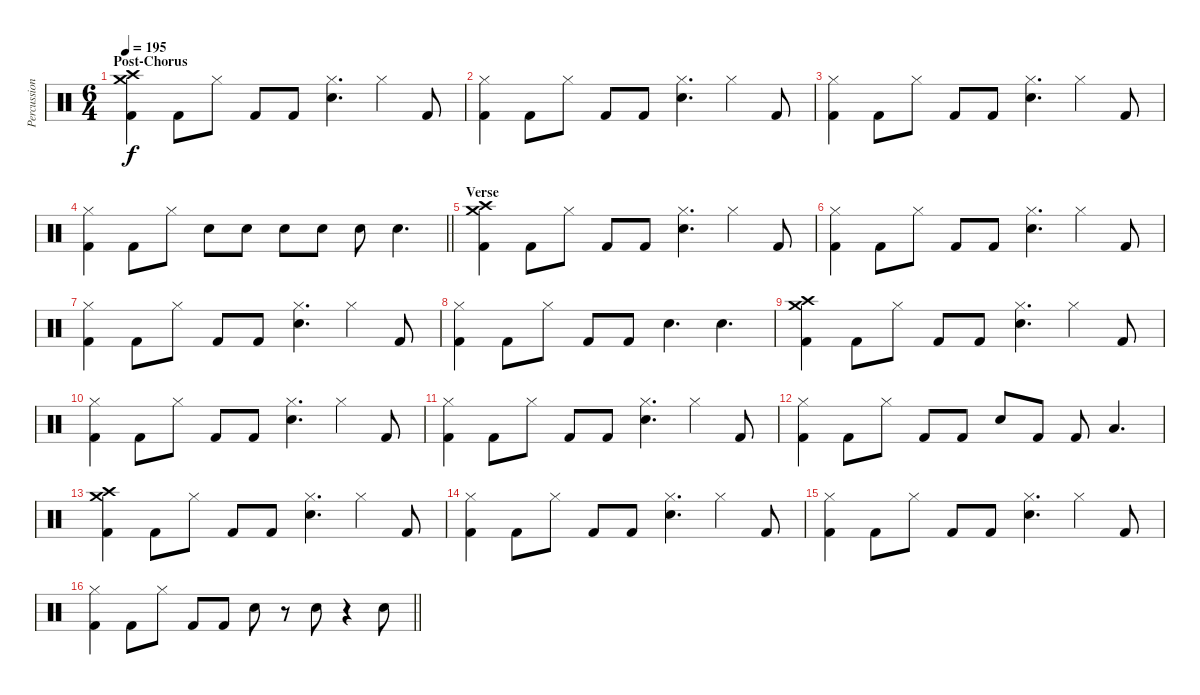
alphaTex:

\track ("Percussion" "Percussion") {instrument percussion}
\staff {score}
\articulation defaults
\ts (6 4)
\section ("" "Post-Chorus")
\tempo 195
\clef neutral
\ks c
("Crash high (hit)" "Crash medium (hit)" "Kick (hit) 2").4{dy f} "Kick (hit) 2".8 "Hi-Hat (closed)".8 "Kick (hit) 2".8 "Kick (hit) 2".8 ("Hi-Hat (closed)" "Electric Snare (hit)").4{d} "Hi-Hat (closed)".4 "Kick (hit) 2".8 |
("Hi-Hat (closed)" "Kick (hit) 2").4 "Kick (hit) 2".8 "Hi-Hat (closed)".8 "Kick (hit) 2".8 "Kick (hit) 2".8 ("Hi-Hat (closed)" "Electric Snare (hit)").4{d} "Hi-Hat (closed)".4 "Kick (hit) 2".8 |
("Hi-Hat (closed)" "Kick (hit) 2").4 "Kick (hit) 2".8 "Hi-Hat (closed)".8 "Kick (hit) 2".8 "Kick (hit) 2".8 ("Hi-Hat (closed)" "Electric Snare (hit)").4{d} "Hi-Hat (closed)".4 "Kick (hit) 2".8 |
\barLineRight lightlight
("Hi-Hat (closed)" "Kick (hit) 2").4 "Kick (hit) 2".8 "Hi-Hat (closed)".8 "Electric Snare (hit)".8 "Electric Snare (hit)".8 "Electric Snare (hit)".8 "Electric Snare (hit)".8 "Electric Snare (hit)".8 "Electric Snare (hit)".4{d} |
\section ("" "Verse")
("Crash high (hit)" "Crash medium (hit)" "Kick (hit) 2").4 "Kick (hit) 2".8 "Hi-Hat (closed)".8 "Kick (hit) 2".8 "Kick (hit) 2".8 ("Hi-Hat (closed)" "Electric Snare (hit)").4{d} "Hi-Hat (closed)".4 "Kick (hit) 2".8 |
("Hi-Hat (closed)" "Kick (hit) 2").4 "Kick (hit) 2".8 "Hi-Hat (closed)".8 "Kick (hit) 2".8 "Kick (hit) 2".8 ("Hi-Hat (closed)" "Electric Snare (hit)").4{d} "Hi-Hat (closed)".4 "Kick (hit) 2".8 |
("Hi-Hat (closed)" "Kick (hit) 2").4 "Kick (hit) 2".8 "Hi-Hat (closed)".8 "Kick (hit) 2".8 "Kick (hit) 2".8 ("Hi-Hat (closed)" "Electric Snare (hit)").4{d} "Hi-Hat (closed)".4 "Kick (hit) 2".8 |
("Hi-Hat (closed)" "Kick (hit) 2").4 "Kick (hit) 2".8 "Hi-Hat (closed)".8 "Kick (hit) 2".8 "Kick (hit) 2".8 "Electric Snare (hit)".4{d} "Electric Snare (hit)".4{d} |
("Crash high (hit)" "Crash medium (hit)" "Kick (hit) 2").4 "Kick (hit) 2".8 "Hi-Hat (closed)".8 "Kick (hit) 2".8 "Kick (hit) 2".8 ("Hi-Hat (closed)" "Electric Snare (hit)").4{d} "Hi-Hat (closed)".4 "Kick (hit) 2".8 |
("Hi-Hat (closed)" "Kick (hit) 2").4 "Kick (hit) 2".8 "Hi-Hat (closed)".8 "Kick (hit) 2".8 "Kick (hit) 2".8 ("Hi-Hat (closed)" "Electric Snare (hit)").4{d} "Hi-Hat (closed)".4 "Kick (hit) 2".8 |
("Hi-Hat (closed)" "Kick (hit) 2").4 "Kick (hit) 2".8 "Hi-Hat (closed)".8 "Kick (hit) 2".8 "Kick (hit) 2".8 ("Hi-Hat (closed)" "Electric Snare (hit)").4{d} "Hi-Hat (closed)".4 "Kick (hit) 2".8 |
("Hi-Hat (closed)" "Kick (hit) 2").4 "Kick (hit) 2".8 "Hi-Hat (closed)".8 "Kick (hit) 2".8 "Kick (hit) 2".8 "Electric Snare (hit)".8 "Kick (hit) 2".8 "Kick (hit) 2".8 "Low Floor Tom (hit)".4{d} |
("Crash high (hit)" "Crash medium (hit)" "Kick (hit) 2").4 "Kick (hit) 2".8 "Hi-Hat (closed)".8 "Kick (hit) 2".8 "Kick (hit) 2".8 ("Hi-Hat (closed)" "Electric Snare (hit)").4{d} "Hi-Hat (closed)".4 "Kick (hit) 2".8 |
("Hi-Hat (closed)" "Kick (hit) 2").4 "Kick (hit) 2".8 "Hi-Hat (closed)".8 "Kick (hit) 2".8 "Kick (hit) 2".8 ("Hi-Hat (closed)" "Electric Snare (hit)").4{d} "Hi-Hat (closed)".4 "Kick (hit) 2".8 |
("Hi-Hat (closed)" "Kick (hit) 2").4 "Kick (hit) 2".8 "Hi-Hat (closed)".8 "Kick (hit) 2".8 "Kick (hit) 2".8 ("Hi-Hat (closed)" "Electric Snare (hit)").4{d} "Hi-Hat (closed)".4 "Kick (hit) 2".8 |
\barLineRight lightlight
("Hi-Hat (closed)" "Kick (hit) 2").4 "Kick (hit) 2".8 "Hi-Hat (closed)".8 "Kick (hit) 2".8 "Kick (hit) 2".8 "Electric Snare (hit)".8 r.8 "Electric Snare (hit)".8 r.4 "Electric Snare (hit)".8
